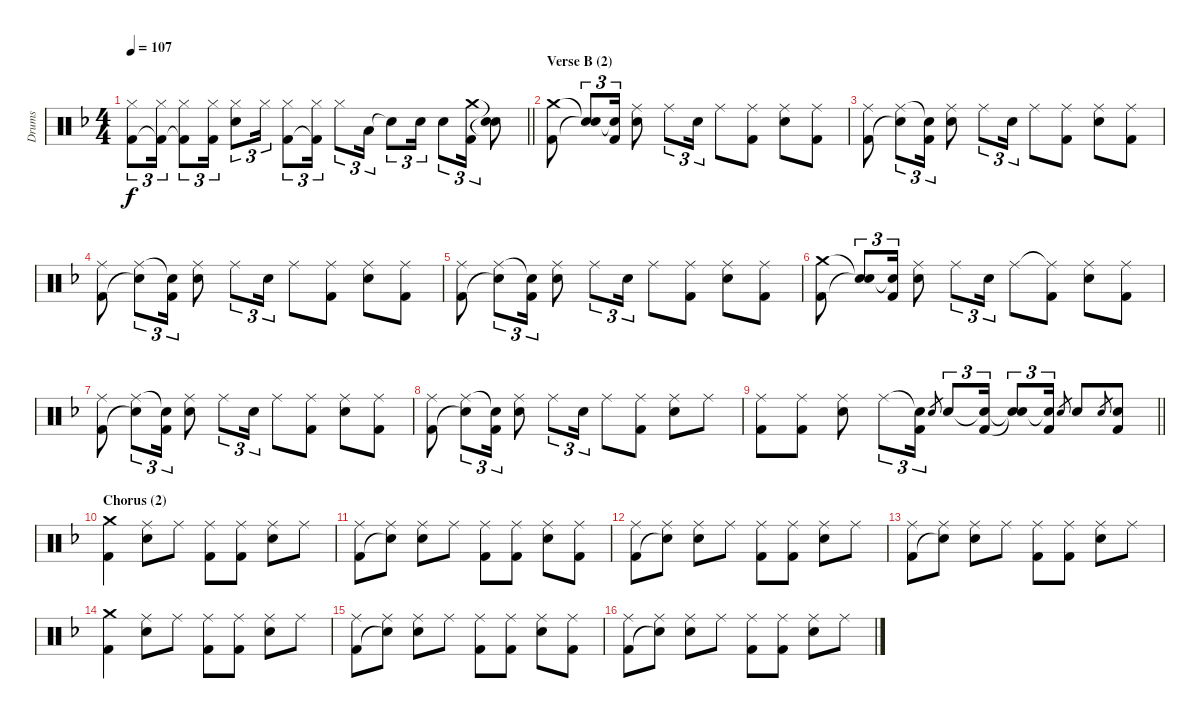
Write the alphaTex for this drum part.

\track ("Drums" "Drums") {instrument percussion}
\staff {score}
\articulation defaults
\ts (4 4)
\tempo 107
\clef neutral
\barLineRight lightlight
\ks dminor
("Hi-Hat (closed)" "Kick (hit) 2").8{tu (3 2) dy f} ("Hi-Hat (closed)" "Kick (hit) 2"{t}).16{tu (3 2)} ("Hi-Hat (closed)" "Kick (hit) 2"{t}).8{tu (3 2)} ("Hi-Hat (closed)" "Kick (hit) 2").16{tu (3 2)} ("Hi-Hat (closed)" "Electric Snare (hit)").8{tu (3 2)} "Hi-Hat (closed)".16{tu (3 2)} ("Hi-Hat (closed)" "Kick (hit) 2").8{tu (3 2)} ("Hi-Hat (closed)" "Kick (hit) 2"{t}).16{tu (3 2)} "Hi-Hat (closed)".8{tu (3 2)} "Low Tom (hit)".16{tu (3 2)} "Snare (hit)"{t}.8{tu (3 2)} "Electric Snare (hit)".16{tu (3 2)} "Electric Snare (hit)".8{tu (3 2)} ("Crash medium (hit)" "Kick (hit) 2").16{tu (3 2)} ("Snare (hit)"{t} "Snare (hit)"{t}).8 |
\section ("" "Verse B (2)")
("Crash medium (hit)" "Kick (hit) 2").8 ("Snare (hit)"{t} "Snare (hit)"{t}).8{tu (3 2)} ("Snare (hit)"{t} "Kick (hit) 2").16{tu (3 2)} ("Ride (middle)" "Electric Snare (hit)").8 "Ride (middle)".8{tu (3 2)} "Electric Snare (hit)".16{tu (3 2)} "Ride (middle)".8 ("Ride (middle)" "Kick (hit) 2").8 ("Ride (middle)" "Electric Snare (hit)").8 ("Ride (middle)" "Kick (hit) 2").8 |
("Ride (middle)" "Kick (hit) 2").8 ("Ride (middle)" "Snare (hit)"{t}).8{tu (3 2)} ("Snare (hit)"{t} "Kick (hit) 2").16{tu (3 2)} ("Ride (middle)" "Electric Snare (hit)").8 "Ride (middle)".8{tu (3 2)} "Electric Snare (hit)".16{tu (3 2)} "Ride (middle)".8 ("Ride (middle)" "Kick (hit) 2").8 ("Ride (middle)" "Electric Snare (hit)").8 ("Ride (middle)" "Kick (hit) 2").8 |
("Ride (middle)" "Kick (hit) 2").8 ("Ride (middle)" "Snare (hit)"{t}).8{tu (3 2)} ("Snare (hit)"{t} "Kick (hit) 2").16{tu (3 2)} ("Ride (middle)" "Electric Snare (hit)").8 "Ride (middle)".8{tu (3 2)} "Electric Snare (hit)".16{tu (3 2)} "Ride (middle)".8 ("Ride (middle)" "Kick (hit) 2").8 ("Ride (middle)" "Electric Snare (hit)").8 ("Ride (middle)" "Kick (hit) 2").8 |
("Ride (middle)" "Kick (hit) 2").8 ("Ride (middle)" "Snare (hit)"{t}).8{tu (3 2)} ("Snare (hit)"{t} "Kick (hit) 2").16{tu (3 2)} ("Ride (middle)" "Electric Snare (hit)").8 "Ride (middle)".8{tu (3 2)} "Electric Snare (hit)".16{tu (3 2)} "Ride (middle)".8 ("Ride (middle)" "Kick (hit) 2").8 ("Ride (middle)" "Electric Snare (hit)").8 ("Ride (middle)" "Kick (hit) 2").8 |
("Crash medium (hit)" "Kick (hit) 2").8 ("Snare (hit)"{t} "Snare (hit)"{t}).8{tu (3 2)} ("Snare (hit)"{t} "Kick (hit) 2").16{tu (3 2)} ("Ride (middle)" "Electric Snare (hit)").8 "Ride (middle)".8{tu (3 2)} "Electric Snare (hit)".16{tu (3 2)} "Ride (middle)".8 ("Ride (middle)"{t} "Kick (hit) 2").8 ("Ride (middle)" "Electric Snare (hit)").8 ("Ride (middle)" "Kick (hit) 2").8 |
("Ride (middle)" "Kick (hit) 2").8 ("Ride (middle)" "Snare (hit)"{t}).8{tu (3 2)} ("Snare (hit)"{t} "Kick (hit) 2").16{tu (3 2)} ("Ride (middle)" "Electric Snare (hit)").8 "Ride (middle)".8{tu (3 2)} "Electric Snare (hit)".16{tu (3 2)} "Ride (middle)".8 ("Ride (middle)" "Kick (hit) 2").8 ("Ride (middle)" "Electric Snare (hit)").8 ("Ride (middle)" "Kick (hit) 2").8 |
("Ride (middle)" "Kick (hit) 2").8 ("Ride (middle)" "Snare (hit)"{t}).8{tu (3 2)} ("Snare (hit)"{t} "Kick (hit) 2").16{tu (3 2)} ("Ride (middle)" "Electric Snare (hit)").8 "Ride (middle)".8{tu (3 2)} "Electric Snare (hit)".16{tu (3 2)} "Ride (middle)".8 ("Ride (middle)" "Kick (hit) 2").8 ("Ride (middle)" "Electric Snare (hit)").8 "Ride (middle)".8 |
\barLineRight lightlight
("Ride (middle)" "Kick (hit) 2").8 ("Ride (middle)" "Kick (hit) 2").8 ("Ride (middle)" "Electric Snare (hit)").8 "Ride (middle)".8{tu (3 2)} ("Snare (hit)"{t} "Kick (hit) 2").16{tu (3 2)} "Electric Snare (hit)".8{gr} "Electric Snare (hit)".8{tu (3 2)} ("Snare (hit)"{t} "Kick (hit) 2").16{tu (3 2)} ("Snare (hit)"{t} "Snare (hit)"{t}).8{tu (3 2)} ("Snare (hit)"{t} "Kick (hit) 2").16{tu (3 2)} "Electric Snare (hit)".8{gr} "Electric Snare (hit)".8 "Electric Snare (hit)".8{gr} ("Electric Snare (hit)" "Kick (hit) 2").8 |
\section ("" "Chorus (2)")
("Crash medium (hit)" "Kick (hit) 2").4 ("Ride (middle)" "Electric Snare (hit)").8 "Ride (middle)".8 ("Ride (middle)" "Kick (hit) 2").8 ("Ride (middle)" "Kick (hit) 2").8 ("Ride (middle)" "Electric Snare (hit)").8 "Ride (middle)".8 |
("Ride (middle)" "Kick (hit) 2").8 ("Ride (middle)" "Snare (hit)"{t}).8 ("Ride (middle)" "Electric Snare (hit)").8 "Ride (middle)".8 ("Ride (middle)" "Kick (hit) 2").8 ("Ride (middle)" "Kick (hit) 2").8 ("Ride (middle)" "Electric Snare (hit)").8 ("Ride (middle)" "Kick (hit) 2").8 |
("Ride (middle)" "Kick (hit) 2").8 ("Ride (middle)" "Snare (hit)"{t}).8 ("Ride (middle)" "Electric Snare (hit)").8 "Ride (middle)".8 ("Ride (middle)" "Kick (hit) 2").8 ("Ride (middle)" "Kick (hit) 2").8 ("Ride (middle)" "Electric Snare (hit)").8 "Ride (middle)".8 |
("Ride (middle)" "Kick (hit) 2").8 ("Ride (middle)" "Snare (hit)"{t}).8 ("Ride (middle)" "Electric Snare (hit)").8 "Ride (middle)".8 ("Ride (middle)" "Kick (hit) 2").8 ("Ride (middle)" "Kick (hit) 2").8 ("Ride (middle)" "Electric Snare (hit)").8 "Ride (middle)".8 |
("Crash medium (hit)" "Kick (hit) 2").4 ("Ride (middle)" "Electric Snare (hit)").8 "Ride (middle)".8 ("Ride (middle)" "Kick (hit) 2").8 ("Ride (middle)" "Kick (hit) 2").8 ("Ride (middle)" "Electric Snare (hit)").8 "Ride (middle)".8 |
("Ride (middle)" "Kick (hit) 2").8 ("Ride (middle)" "Snare (hit)"{t}).8 ("Ride (middle)" "Electric Snare (hit)").8 "Ride (middle)".8 ("Ride (middle)" "Kick (hit) 2").8 ("Ride (middle)" "Kick (hit) 2").8 ("Ride (middle)" "Electric Snare (hit)").8 ("Ride (middle)" "Kick (hit) 2").8 |
("Ride (middle)" "Kick (hit) 2").8 ("Ride (middle)" "Snare (hit)"{t}).8 ("Ride (middle)" "Electric Snare (hit)").8 "Ride (middle)".8 ("Ride (middle)" "Kick (hit) 2").8 ("Ride (middle)" "Kick (hit) 2").8 ("Ride (middle)" "Electric Snare (hit)").8 "Ride (middle)".8
